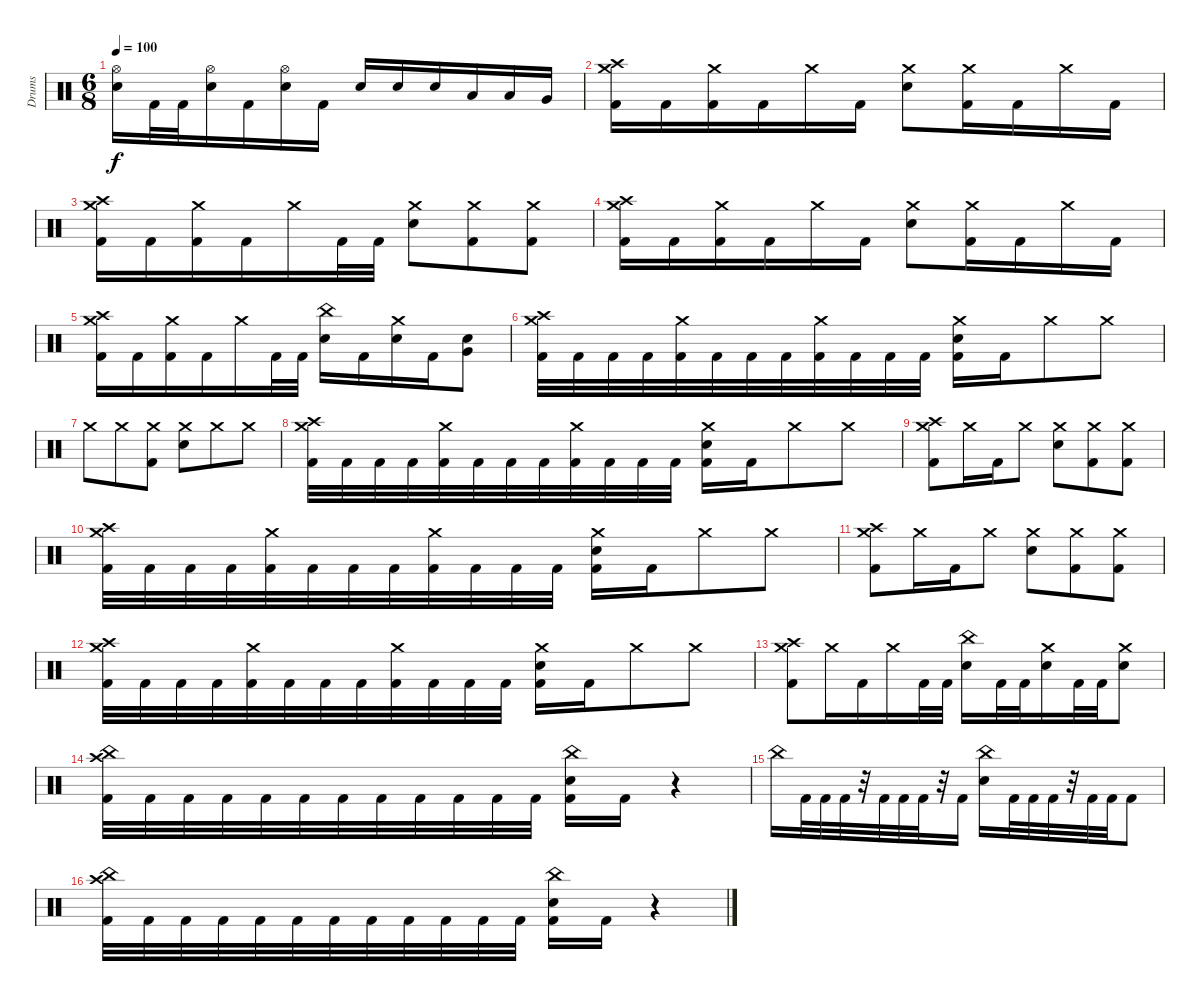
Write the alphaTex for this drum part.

\track ("Drums" "Drums") {instrument percussion}
\staff {score}
\articulation defaults
\ts (6 8)
\tempo 100
\clef neutral
\ks c
("Hi-Hat (open)" "Electric Snare (hit)").16{dy f} "Kick (hit) 2".32 "Kick (hit) 2".32 ("Hi-Hat (open)" "Electric Snare (hit)").16 "Kick (hit) 2".16 ("Hi-Hat (open)" "Electric Snare (hit)").16 "Kick (hit) 2".16 "Electric Snare (hit)".16 "Electric Snare (hit)".16 "Electric Snare (hit)".16 "Low Tom (hit)".16 "Low Tom (hit)".16 "Very Low Tom (hit)".16 |
("Crash high (hit)" "Crash medium (hit)" "Kick (hit) 2").16 "Kick (hit) 2".16 ("Crash medium (hit)" "Kick (hit) 2").16 "Kick (hit) 2".16 "Crash medium (hit)".16 "Kick (hit) 2".16 ("Crash medium (hit)" "Electric Snare (hit)").8 ("Crash medium (hit)" "Kick (hit) 2").16 "Kick (hit) 2".16 "Crash medium (hit)".16 "Kick (hit) 2".16 |
("Crash high (hit)" "Crash medium (hit)" "Kick (hit) 2").16 "Kick (hit) 2".16 ("Crash medium (hit)" "Kick (hit) 2").16 "Kick (hit) 2".16 "Crash medium (hit)".16 "Kick (hit) 2".32 "Kick (hit) 2".32 ("Crash medium (hit)" "Electric Snare (hit)").8 ("Crash medium (hit)" "Kick (hit) 2").8 ("Crash medium (hit)" "Kick (hit) 2").8 |
("Crash high (hit)" "Crash medium (hit)" "Kick (hit) 2").16 "Kick (hit) 2".16 ("Crash medium (hit)" "Kick (hit) 2").16 "Kick (hit) 2".16 "Crash medium (hit)".16 "Kick (hit) 2".16 ("Crash medium (hit)" "Electric Snare (hit)").8 ("Crash medium (hit)" "Kick (hit) 2").16 "Kick (hit) 2".16 "Crash medium (hit)".16 "Kick (hit) 2".16 |
("Crash high (hit)" "Crash medium (hit)" "Kick (hit) 2").16 "Kick (hit) 2".16 ("Crash medium (hit)" "Kick (hit) 2").16 "Kick (hit) 2".16 "Crash medium (hit)".16 "Kick (hit) 2".32 "Kick (hit) 2".32 ("China (hit)" "Electric Snare (hit)").16 "Kick (hit) 2".16 ("Crash medium (hit)" "Electric Snare (hit)").16 "Kick (hit) 2".16 ("Very Low Tom (hit)" "Electric Snare (hit)").8 |
("Crash medium (hit)" "Crash high (hit)" "Kick (hit) 2").32 "Kick (hit) 2".32 "Kick (hit) 2".32 "Kick (hit) 2".32 ("Crash medium (hit)" "Kick (hit) 2").32 "Kick (hit) 2".32 "Kick (hit) 2".32 "Kick (hit) 2".32 ("Crash medium (hit)" "Kick (hit) 2").32 "Kick (hit) 2".32 "Kick (hit) 2".32 "Kick (hit) 2".32 ("Crash medium (hit)" "Electric Snare (hit)" "Kick (hit) 2").16 "Kick (hit) 2".16 "Crash medium (hit)".8 "Crash medium (hit)".8 |
"Crash medium (hit)".8 "Crash medium (hit)".8 ("Crash medium (hit)" "Kick (hit) 2").8 ("Crash medium (hit)" "Electric Snare (hit)").8 "Crash medium (hit)".8 "Crash medium (hit)".8 |
("Crash medium (hit)" "Crash high (hit)" "Kick (hit) 2").32 "Kick (hit) 2".32 "Kick (hit) 2".32 "Kick (hit) 2".32 ("Crash medium (hit)" "Kick (hit) 2").32 "Kick (hit) 2".32 "Kick (hit) 2".32 "Kick (hit) 2".32 ("Crash medium (hit)" "Kick (hit) 2").32 "Kick (hit) 2".32 "Kick (hit) 2".32 "Kick (hit) 2".32 ("Crash medium (hit)" "Electric Snare (hit)" "Kick (hit) 2").16 "Kick (hit) 2".16 "Crash medium (hit)".8 "Crash medium (hit)".8 |
("Crash medium (hit)" "Crash high (hit)" "Kick (hit) 2").8 "Crash medium (hit)".16 "Kick (hit) 2".16 "Crash medium (hit)".8 ("Crash medium (hit)" "Electric Snare (hit)").8 ("Crash medium (hit)" "Kick (hit) 2").8 ("Crash medium (hit)" "Kick (hit) 2").8 |
("Crash medium (hit)" "Crash high (hit)" "Kick (hit) 2").32 "Kick (hit) 2".32 "Kick (hit) 2".32 "Kick (hit) 2".32 ("Crash medium (hit)" "Kick (hit) 2").32 "Kick (hit) 2".32 "Kick (hit) 2".32 "Kick (hit) 2".32 ("Crash medium (hit)" "Kick (hit) 2").32 "Kick (hit) 2".32 "Kick (hit) 2".32 "Kick (hit) 2".32 ("Crash medium (hit)" "Electric Snare (hit)" "Kick (hit) 2").16 "Kick (hit) 2".16 "Crash medium (hit)".8 "Crash medium (hit)".8 |
("Crash medium (hit)" "Crash high (hit)" "Kick (hit) 2").8 "Crash medium (hit)".16 "Kick (hit) 2".16 "Crash medium (hit)".8 ("Crash medium (hit)" "Electric Snare (hit)").8 ("Crash medium (hit)" "Kick (hit) 2").8 ("Crash medium (hit)" "Kick (hit) 2").8 |
("Crash medium (hit)" "Crash high (hit)" "Kick (hit) 2").32 "Kick (hit) 2".32 "Kick (hit) 2".32 "Kick (hit) 2".32 ("Crash medium (hit)" "Kick (hit) 2").32 "Kick (hit) 2".32 "Kick (hit) 2".32 "Kick (hit) 2".32 ("Crash medium (hit)" "Kick (hit) 2").32 "Kick (hit) 2".32 "Kick (hit) 2".32 "Kick (hit) 2".32 ("Crash medium (hit)" "Electric Snare (hit)" "Kick (hit) 2").16 "Kick (hit) 2".16 "Crash medium (hit)".8 "Crash medium (hit)".8 |
("Crash medium (hit)" "Crash high (hit)" "Kick (hit) 2").8 "Crash medium (hit)".16 "Kick (hit) 2".16 "Crash medium (hit)".16 "Kick (hit) 2".32 "Kick (hit) 2".32 ("China (hit)" "Electric Snare (hit)").16 "Kick (hit) 2".32 "Kick (hit) 2".32 ("Crash medium (hit)" "Electric Snare (hit)").16 "Kick (hit) 2".32 "Kick (hit) 2".32 ("Crash medium (hit)" "Electric Snare (hit)").8 |
("China (hit)" "Crash high (hit)" "Kick (hit) 2").32 "Kick (hit) 2".32 "Kick (hit) 2".32 "Kick (hit) 2".32 "Kick (hit) 2".32 "Kick (hit) 2".32 "Kick (hit) 2".32 "Kick (hit) 2".32 "Kick (hit) 2".32 "Kick (hit) 2".32 "Kick (hit) 2".32 "Kick (hit) 2".32 ("China (hit)" "Electric Snare (hit)" "Kick (hit) 2").16 "Kick (hit) 2".16 r.4 |
"China (hit)".16 "Kick (hit) 2".32 "Kick (hit) 2".32 "Kick (hit) 2".32 r.32 "Kick (hit) 2".32 "Kick (hit) 2".32 "Kick (hit) 2".32 r.32 "Kick (hit) 2".16 ("China (hit)" "Electric Snare (hit)").16 "Kick (hit) 2".32 "Kick (hit) 2".32 "Kick (hit) 2".32 r.32 "Kick (hit) 2".32 "Kick (hit) 2".32 "Kick (hit) 2".8 |
("China (hit)" "Crash high (hit)" "Kick (hit) 2").32 "Kick (hit) 2".32 "Kick (hit) 2".32 "Kick (hit) 2".32 "Kick (hit) 2".32 "Kick (hit) 2".32 "Kick (hit) 2".32 "Kick (hit) 2".32 "Kick (hit) 2".32 "Kick (hit) 2".32 "Kick (hit) 2".32 "Kick (hit) 2".32 ("China (hit)" "Electric Snare (hit)" "Kick (hit) 2").16 "Kick (hit) 2".16 r.4
